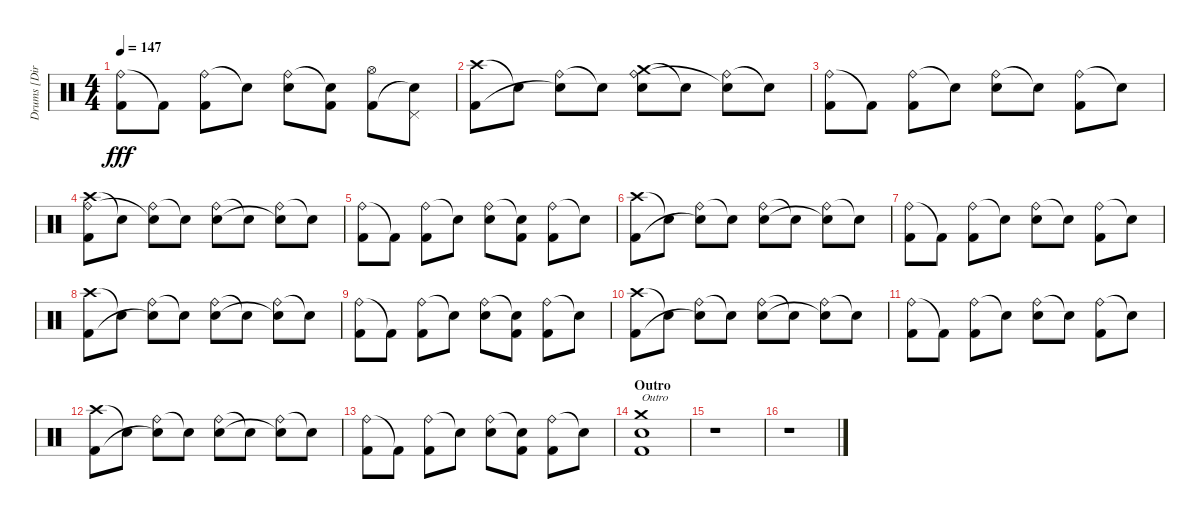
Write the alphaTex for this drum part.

\track ("Drums [Dirge Rep]" "Drums [Dir") {instrument percussion}
\staff {score}
\articulation defaults
\ts (4 4)
\tempo 147
\clef neutral
\ks c
("Ride (bell)" "Kick (hit) 2").8{dy fff} "Kick (hit) 2"{t}.8 ("Ride (bell)" "Kick (hit) 2").8 "Snare (hit)"{t}.8 ("Ride (bell)" "Electric Snare (hit)").8 ("Snare (hit)"{t} "Kick (hit) 2").8 ("Hi-Hat (open)" "Kick (hit) 2").8 ("Pedal Hi-Hat (hit)" "Snare (hit)"{t}).8 |
("Crash high (hit)" "Kick (hit) 2").8 "Snare (hit)"{t}.8 ("Ride (bell)" "Snare (hit)"{t}).8 "Snare (hit)"{t}.8 ("Crash medium (hit)" "Ride (bell)" "Electric Snare (hit)").8 "Snare (hit)"{t}.8 ("Ride (bell)" "Snare (hit)"{t}).8 "Snare (hit)"{t}.8 |
("Ride (bell)" "Kick (hit) 2").8 "Kick (hit) 2"{t}.8 ("Ride (bell)" "Kick (hit) 2").8 "Snare (hit)"{t}.8 ("Ride (bell)" "Electric Snare (hit)").8 "Snare (hit)"{t}.8 ("Ride (bell)" "Kick (hit) 2").8 "Snare (hit)"{t}.8 |
("Crash high (hit)" "Ride (bell)" "Kick (hit) 2").8 "Snare (hit)"{t}.8 ("Ride (bell)" "Snare (hit)"{t}).8 "Snare (hit)"{t}.8 ("Ride (bell)" "Electric Snare (hit)").8 "Snare (hit)"{t}.8 ("Ride (bell)" "Snare (hit)"{t}).8 "Snare (hit)"{t}.8 |
("Ride (bell)" "Kick (hit) 2").8 "Kick (hit) 2"{t}.8 ("Ride (bell)" "Kick (hit) 2").8 "Snare (hit)"{t}.8 ("Ride (bell)" "Electric Snare (hit)").8 ("Snare (hit)"{t} "Kick (hit) 2").8 ("Ride (bell)" "Kick (hit) 2").8 "Snare (hit)"{t}.8 |
("Crash high (hit)" "Kick (hit) 2").8 "Snare (hit)"{t}.8 ("Ride (bell)" "Snare (hit)"{t}).8 "Snare (hit)"{t}.8 ("Ride (bell)" "Electric Snare (hit)").8 "Snare (hit)"{t}.8 ("Ride (bell)" "Snare (hit)"{t}).8 "Snare (hit)"{t}.8 |
("Ride (bell)" "Kick (hit) 2").8 "Kick (hit) 2"{t}.8 ("Ride (bell)" "Kick (hit) 2").8 "Snare (hit)"{t}.8 ("Ride (bell)" "Electric Snare (hit)").8 "Snare (hit)"{t}.8 ("Ride (bell)" "Kick (hit) 2").8 "Snare (hit)"{t}.8 |
("Crash high (hit)" "Kick (hit) 2").8 "Snare (hit)"{t}.8 ("Ride (bell)" "Snare (hit)"{t}).8 "Snare (hit)"{t}.8 ("Ride (bell)" "Electric Snare (hit)").8 "Snare (hit)"{t}.8 ("Ride (bell)" "Snare (hit)"{t}).8 "Snare (hit)"{t}.8 |
("Ride (bell)" "Kick (hit) 2").8 "Kick (hit) 2"{t}.8 ("Ride (bell)" "Kick (hit) 2").8 "Snare (hit)"{t}.8 ("Ride (bell)" "Electric Snare (hit)").8 ("Snare (hit)"{t} "Kick (hit) 2").8 ("Ride (bell)" "Kick (hit) 2").8 "Snare (hit)"{t}.8 |
("Crash high (hit)" "Kick (hit) 2").8 "Snare (hit)"{t}.8 ("Ride (bell)" "Snare (hit)"{t}).8 "Snare (hit)"{t}.8 ("Ride (bell)" "Electric Snare (hit)").8 "Snare (hit)"{t}.8 ("Ride (bell)" "Snare (hit)"{t}).8 "Snare (hit)"{t}.8 |
("Ride (bell)" "Kick (hit) 2").8 "Kick (hit) 2"{t}.8 ("Ride (bell)" "Kick (hit) 2").8 "Snare (hit)"{t}.8 ("Ride (bell)" "Electric Snare (hit)").8 "Snare (hit)"{t}.8 ("Ride (bell)" "Kick (hit) 2").8 "Snare (hit)"{t}.8 |
("Crash high (hit)" "Kick (hit) 2").8 "Snare (hit)"{t}.8 ("Ride (bell)" "Snare (hit)"{t}).8 "Snare (hit)"{t}.8 ("Ride (bell)" "Electric Snare (hit)").8 "Snare (hit)"{t}.8 ("Ride (bell)" "Snare (hit)"{t}).8 "Snare (hit)"{t}.8 |
("Ride (bell)" "Kick (hit) 2").8 "Kick (hit) 2"{t}.8 ("Ride (bell)" "Kick (hit) 2").8 "Snare (hit)"{t}.8 ("Ride (bell)" "Electric Snare (hit)").8 ("Snare (hit)"{t} "Kick (hit) 2").8 ("Ride (bell)" "Kick (hit) 2").8 "Snare (hit)"{t}.8 |
\section ("" "Outro")
("Crash medium (hit)" "Electric Snare (hit)" "Kick (hit) 2").1{txt "Outro"} |
r.1 |
r.1
